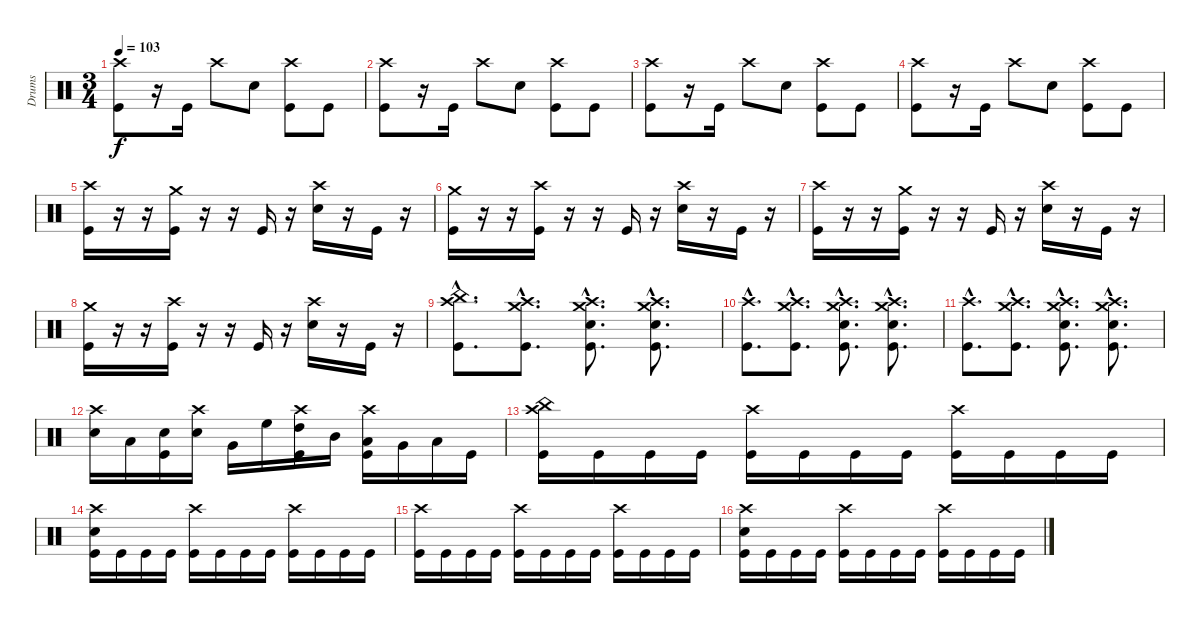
\track ("Drums" "Drums") {instrument percussion}
\staff {score}
\articulation defaults
\ts (3 4)
\tempo 103
\clef neutral
\ks c
("Crash high (hit)" "Kick (hit)").8{dy f} r.16 "Kick (hit)".16 "Crash high (hit)".8 "Snare (hit) 2".8 ("Crash high (hit)" "Kick (hit)").8 "Kick (hit)".8 |
("Crash high (hit)" "Kick (hit)").8 r.16 "Kick (hit)".16 "Crash high (hit)".8 "Snare (hit) 2".8 ("Crash high (hit)" "Kick (hit)").8 "Kick (hit)".8 |
("Crash high (hit)" "Kick (hit)").8 r.16 "Kick (hit)".16 "Crash high (hit)".8 "Snare (hit) 2".8 ("Crash high (hit)" "Kick (hit)").8 "Kick (hit)".8 |
("Crash high (hit)" "Kick (hit)").8 r.16 "Kick (hit)".16 "Crash high (hit)".8 "Snare (hit) 2".8 ("Crash high (hit)" "Kick (hit)").8 "Kick (hit)".8 |
("Crash high (hit)" "Kick (hit)").16 r.16 r.16 ("Crash medium (hit)" "Kick (hit)").16 r.16 r.16 "Kick (hit)".16 r.16 ("Crash high (hit)" "Snare (hit) 2").16 r.16 "Kick (hit)".16 r.16 |
("Crash medium (hit)" "Kick (hit)").16 r.16 r.16 ("Crash high (hit)" "Kick (hit)").16 r.16 r.16 "Kick (hit)".16 r.16 ("Crash high (hit)" "Snare (hit) 2").16 r.16 "Kick (hit)".16 r.16 |
("Crash high (hit)" "Kick (hit)").16 r.16 r.16 ("Crash medium (hit)" "Kick (hit)").16 r.16 r.16 "Kick (hit)".16 r.16 ("Crash high (hit)" "Snare (hit) 2").16 r.16 "Kick (hit)".16 r.16 |
("Crash medium (hit)" "Kick (hit)").16 r.16 r.16 ("Crash high (hit)" "Kick (hit)").16 r.16 r.16 "Kick (hit)".16 r.16 ("Crash high (hit)" "Snare (hit) 2").16 r.16 "Kick (hit)".16 r.16 |
("Crash high (hit)"{hac} "China (hit)"{hac} "Kick (hit)"{hac}).8{d} ("Crash high (hit)"{hac} "Crash medium (hit)"{hac} "Kick (hit)"{hac}).8{d} ("Crash high (hit)"{hac} "Crash medium (hit)"{hac} "Snare (hit) 2"{hac} "Kick (hit)"{hac}).8{d} ("Crash high (hit)"{hac} "Crash medium (hit)"{hac} "Snare (hit) 2"{hac} "Kick (hit)"{hac}).8{d} |
("Crash high (hit)"{hac} "Kick (hit)"{hac}).8{d} ("Crash high (hit)"{hac} "Crash medium (hit)"{hac} "Kick (hit)"{hac}).8{d} ("Crash high (hit)"{hac} "Crash medium (hit)"{hac} "Snare (hit) 2"{hac} "Kick (hit)"{hac}).8{d} ("Crash high (hit)"{hac} "Crash medium (hit)"{hac} "Snare (hit) 2"{hac} "Kick (hit)"{hac}).8{d} |
("Crash high (hit)"{hac} "Kick (hit)"{hac}).8{d} ("Crash high (hit)"{hac} "Crash medium (hit)"{hac} "Kick (hit)"{hac}).8{d} ("Crash high (hit)"{hac} "Crash medium (hit)"{hac} "Snare (hit) 2"{hac} "Kick (hit)"{hac}).8{d} ("Crash high (hit)"{hac} "Crash medium (hit)"{hac} "Snare (hit) 2"{hac} "Kick (hit)"{hac}).8{d} |
("Crash high (hit)" "Snare (hit) 2").16 "Low Tom (hit)".16 ("Snare (hit) 2" "Kick (hit)").16 ("Crash high (hit)" "Snare (hit) 2").16 "Very Low Tom (hit)".16 "High Floor Tom (hit)".16 ("Crash high (hit)" "High Tom (hit)" "Kick (hit)").16 "Mid Tom (hit)".16 ("Crash high (hit)" "Low Tom (hit)" "Kick (hit)").16 "Very Low Tom (hit)".16 "Low Floor Tom (hit)".16 "Kick (hit)".16 |
("Crash high (hit)" "China (hit)" "Kick (hit)").16 "Kick (hit)".16 "Kick (hit)".16 "Kick (hit)".16 ("Crash high (hit)" "Kick (hit)").16 "Kick (hit)".16 "Kick (hit)".16 "Kick (hit)".16 ("Crash high (hit)" "Kick (hit)").16 "Kick (hit)".16 "Kick (hit)".16 "Kick (hit)".16 |
("Crash high (hit)" "Snare (hit) 2" "Kick (hit)").16 "Kick (hit)".16 "Kick (hit)".16 "Kick (hit)".16 ("Crash high (hit)" "Kick (hit)").16 "Kick (hit)".16 "Kick (hit)".16 "Kick (hit)".16 ("Crash high (hit)" "Kick (hit)").16 "Kick (hit)".16 "Kick (hit)".16 "Kick (hit)".16 |
("Crash high (hit)" "Kick (hit)").16 "Kick (hit)".16 "Kick (hit)".16 "Kick (hit)".16 ("Crash high (hit)" "Kick (hit)").16 "Kick (hit)".16 "Kick (hit)".16 "Kick (hit)".16 ("Crash high (hit)" "Kick (hit)").16 "Kick (hit)".16 "Kick (hit)".16 "Kick (hit)".16 |
("Crash high (hit)" "Snare (hit) 2" "Kick (hit)").16 "Kick (hit)".16 "Kick (hit)".16 "Kick (hit)".16 ("Crash high (hit)" "Kick (hit)").16 "Kick (hit)".16 "Kick (hit)".16 "Kick (hit)".16 ("Crash high (hit)" "Kick (hit)").16 "Kick (hit)".16 "Kick (hit)".16 "Kick (hit)".16
